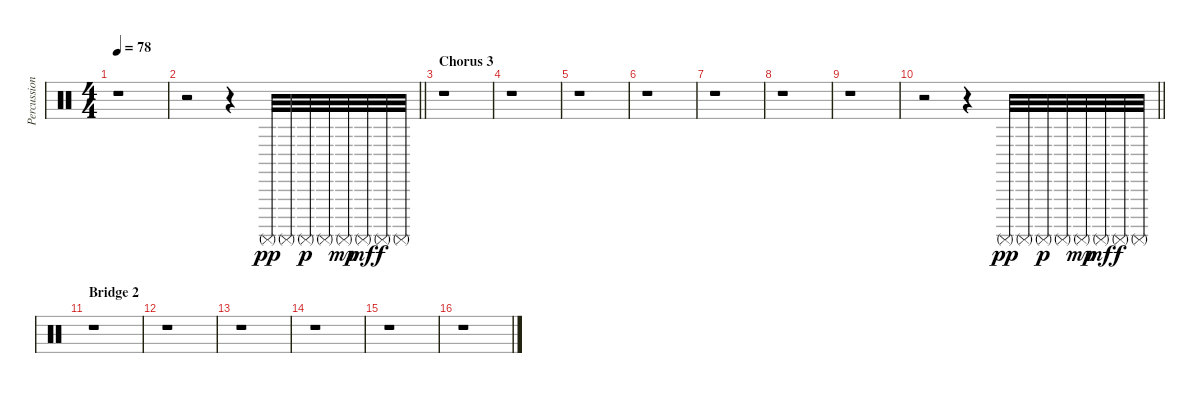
\track ("Percussion" "Percussion") {instrument percussion}
\staff {score}
\articulation defaults
\ts (4 4)
\tempo 78
\clef neutral
\ks c
r.1{dy f} |
\barLineRight lightlight
r.2 r.4 "Surdo (mute)".32{dy pp} "Surdo (mute)".32 "Surdo (mute)".32{dy p} "Surdo (mute)".32 "Surdo (mute)".32{dy mp} "Surdo (mute)".32{dy mf} "Surdo (mute)".32{dy f} "Surdo (mute)".32 |
\section ("" "Chorus 3")
r.1 |
r.1 |
r.1 |
r.1 |
r.1 |
r.1 |
r.1 |
\barLineRight lightlight
r.2 r.4 "Surdo (mute)".32{dy pp} "Surdo (mute)".32 "Surdo (mute)".32{dy p} "Surdo (mute)".32 "Surdo (mute)".32{dy mp} "Surdo (mute)".32{dy mf} "Surdo (mute)".32{dy f} "Surdo (mute)".32 |
\section ("" "Bridge 2")
r.1 |
r.1 |
r.1 |
r.1 |
r.1 |
r.1
